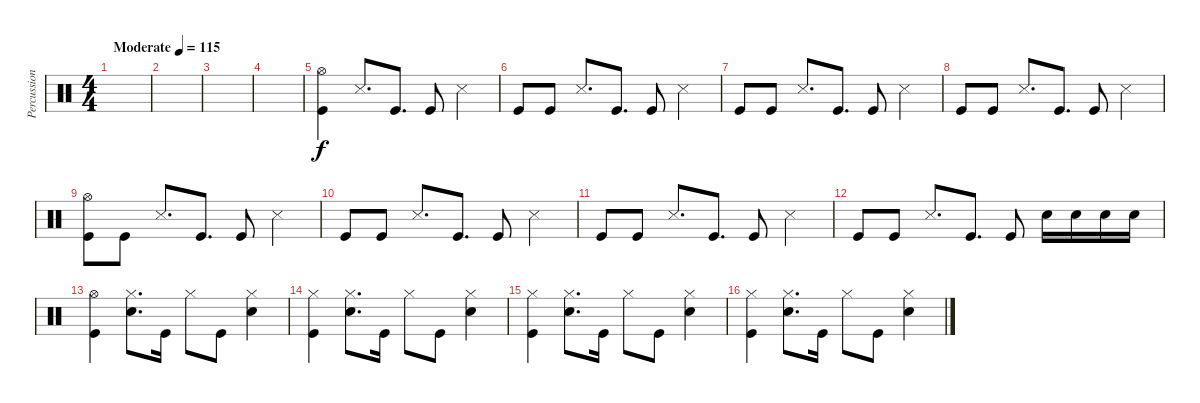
\track ("Percussion 1" "Percussion") {instrument percussion}
\staff {score}
\articulation defaults
\ts (4 4)
\tempo (115 "Moderate")
\clef neutral
\ks c
|
|
|
|
("Hi-Hat (open)" "Kick (hit)").4 "Snare (side stick) 3".8{d} "Kick (hit)".8{d} "Kick (hit)".8 "Snare (side stick) 3".4 |
"Kick (hit)".8 "Kick (hit)".8 "Snare (side stick) 3".8{d} "Kick (hit)".8{d} "Kick (hit)".8 "Snare (side stick) 3".4 |
"Kick (hit)".8 "Kick (hit)".8 "Snare (side stick) 3".8{d} "Kick (hit)".8{d} "Kick (hit)".8 "Snare (side stick) 3".4 |
"Kick (hit)".8 "Kick (hit)".8 "Snare (side stick) 3".8{d} "Kick (hit)".8{d} "Kick (hit)".8 "Snare (side stick) 3".4 |
("Hi-Hat (open)" "Kick (hit)").8 "Kick (hit)".8 "Snare (side stick) 3".8{d} "Kick (hit)".8{d} "Kick (hit)".8 "Snare (side stick) 3".4 |
"Kick (hit)".8 "Kick (hit)".8 "Snare (side stick) 3".8{d} "Kick (hit)".8{d} "Kick (hit)".8 "Snare (side stick) 3".4 |
"Kick (hit)".8 "Kick (hit)".8 "Snare (side stick) 3".8{d} "Kick (hit)".8{d} "Kick (hit)".8 "Snare (side stick) 3".4 |
"Kick (hit)".8 "Kick (hit)".8 "Snare (side stick) 3".8{d} "Kick (hit)".8{d} "Kick (hit)".8 "Snare (hit) 2".16 "Snare (hit) 2".16 "Snare (hit) 2".16 "Snare (hit) 2".16 |
("Hi-Hat (open)" "Kick (hit)").4 ("Hi-Hat (closed)" "Snare (hit) 2").8{d} "Kick (hit)".16 "Hi-Hat (closed)".8 "Kick (hit)".8 ("Hi-Hat (closed)" "Snare (hit) 2").4 |
("Kick (hit)" "Hi-Hat (closed)").4 ("Hi-Hat (closed)" "Snare (hit) 2").8{d} "Kick (hit)".16 "Hi-Hat (closed)".8 "Kick (hit)".8 ("Hi-Hat (closed)" "Snare (hit) 2").4 |
("Kick (hit)" "Hi-Hat (closed)").4 ("Hi-Hat (closed)" "Snare (hit) 2").8{d} "Kick (hit)".16 "Hi-Hat (closed)".8 "Kick (hit)".8 ("Hi-Hat (closed)" "Snare (hit) 2").4 |
("Kick (hit)" "Hi-Hat (closed)").4 ("Hi-Hat (closed)" "Snare (hit) 2").8{d} "Kick (hit)".16 "Hi-Hat (closed)".8 "Kick (hit)".8 ("Hi-Hat (closed)" "Snare (hit) 2").4
